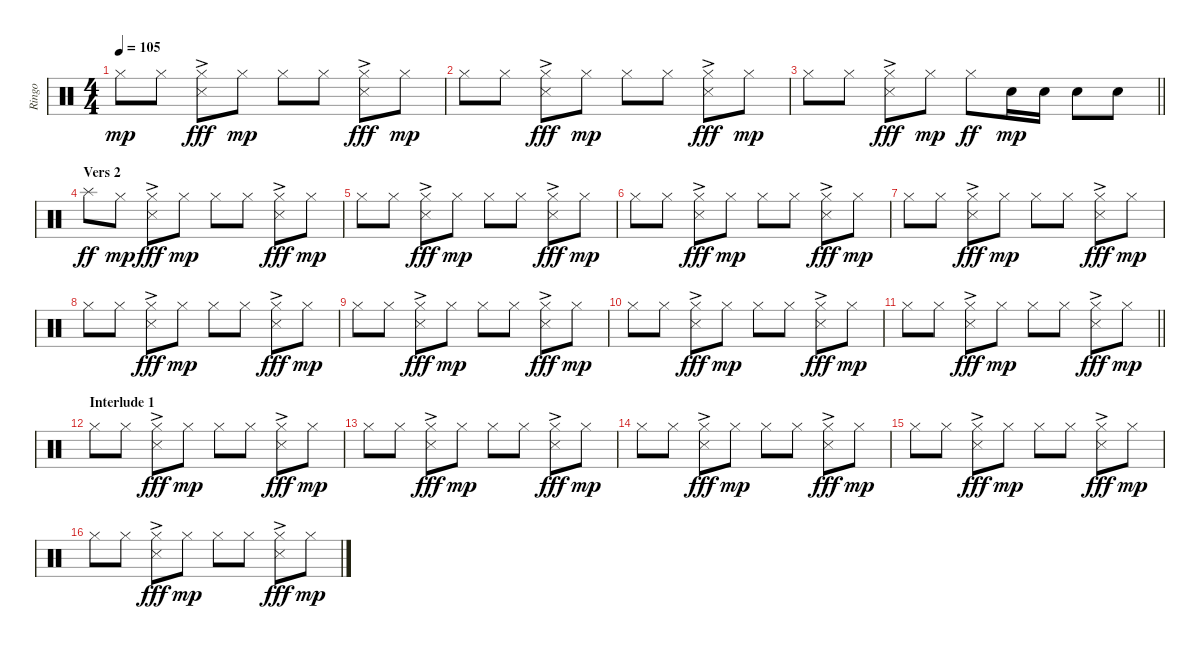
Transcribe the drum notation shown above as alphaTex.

\track ("Ringo" "Ringo") {instrument percussion}
\staff {score}
\articulation defaults
\ts (4 4)
\tempo 105
\clef neutral
\ks c "Hi-Hat (closed)".8{dy mp} "Hi-Hat (closed)".8
("Hi-Hat (closed)" "Metronome (hit)"{ac}).8{dy fff} "Hi-Hat (closed)".8{dy mp} "Hi-Hat (closed)".8 "Hi-Hat (closed)".8 ("Hi-Hat (closed)" "Metronome (hit)"{ac}).8{dy fff} "Hi-Hat (closed)".8{dy mp} |
"Hi-Hat (closed)".8 "Hi-Hat (closed)".8 ("Hi-Hat (closed)" "Metronome (hit)"{ac}).8{dy fff} "Hi-Hat (closed)".8{dy mp} "Hi-Hat (closed)".8 "Hi-Hat (closed)".8 ("Hi-Hat (closed)" "Metronome (hit)"{ac}).8{dy fff} "Hi-Hat (closed)".8{dy mp} |
\barLineRight lightlight "Hi-Hat (closed)".8 "Hi-Hat (closed)".8
("Hi-Hat (closed)" "Metronome (hit)"{ac}).8{dy fff} "Hi-Hat (closed)".8{dy mp} "Hi-Hat (closed)".8{dy ff} "Snare (hit) 2".16{dy mp} "Snare (hit) 2".16 "Snare (hit) 2".8 "Snare (hit) 2".8 |
\section ("" "Vers 2")
"Splash (hit)".8{dy ff} "Hi-Hat (closed)".8{dy mp} ("Hi-Hat (closed)" "Metronome (hit)"{ac}).8{dy fff} "Hi-Hat (closed)".8{dy mp} "Hi-Hat (closed)".8 "Hi-Hat (closed)".8 ("Hi-Hat (closed)" "Metronome (hit)"{ac}).8{dy fff} "Hi-Hat (closed)".8{dy mp} |
"Hi-Hat (closed)".8 "Hi-Hat (closed)".8 ("Hi-Hat (closed)" "Metronome (hit)"{ac}).8{dy fff} "Hi-Hat (closed)".8{dy mp} "Hi-Hat (closed)".8 "Hi-Hat (closed)".8 ("Hi-Hat (closed)" "Metronome (hit)"{ac}).8{dy fff} "Hi-Hat (closed)".8{dy mp} |
"Hi-Hat (closed)".8 "Hi-Hat (closed)".8 ("Hi-Hat (closed)" "Metronome (hit)"{ac}).8{dy fff} "Hi-Hat (closed)".8{dy mp} "Hi-Hat (closed)".8 "Hi-Hat (closed)".8 ("Hi-Hat (closed)" "Metronome (hit)"{ac}).8{dy fff} "Hi-Hat (closed)".8{dy mp} |
"Hi-Hat (closed)".8 "Hi-Hat (closed)".8 ("Hi-Hat (closed)" "Metronome (hit)"{ac}).8{dy fff} "Hi-Hat (closed)".8{dy mp} "Hi-Hat (closed)".8 "Hi-Hat (closed)".8 ("Hi-Hat (closed)" "Metronome (hit)"{ac}).8{dy fff} "Hi-Hat (closed)".8{dy mp} |
"Hi-Hat (closed)".8 "Hi-Hat (closed)".8 ("Hi-Hat (closed)" "Metronome (hit)"{ac}).8{dy fff} "Hi-Hat (closed)".8{dy mp} "Hi-Hat (closed)".8 "Hi-Hat (closed)".8 ("Hi-Hat (closed)" "Metronome (hit)"{ac}).8{dy fff} "Hi-Hat (closed)".8{dy mp} |
"Hi-Hat (closed)".8 "Hi-Hat (closed)".8 ("Hi-Hat (closed)" "Metronome (hit)"{ac}).8{dy fff} "Hi-Hat (closed)".8{dy mp} "Hi-Hat (closed)".8 "Hi-Hat (closed)".8 ("Hi-Hat (closed)" "Metronome (hit)"{ac}).8{dy fff} "Hi-Hat (closed)".8{dy mp} |
"Hi-Hat (closed)".8 "Hi-Hat (closed)".8 ("Hi-Hat (closed)" "Metronome (hit)"{ac}).8{dy fff} "Hi-Hat (closed)".8{dy mp} "Hi-Hat (closed)".8 "Hi-Hat (closed)".8 ("Hi-Hat (closed)" "Metronome (hit)"{ac}).8{dy fff} "Hi-Hat (closed)".8{dy mp} |
\barLineRight lightlight "Hi-Hat (closed)".8 "Hi-Hat (closed)".8
("Hi-Hat (closed)" "Metronome (hit)"{ac}).8{dy fff} "Hi-Hat (closed)".8{dy mp} "Hi-Hat (closed)".8 "Hi-Hat (closed)".8 ("Hi-Hat (closed)" "Metronome (hit)"{ac}).8{dy fff} "Hi-Hat (closed)".8{dy mp} |
\section ("" "Interlude 1")
"Hi-Hat (closed)".8 "Hi-Hat (closed)".8 ("Hi-Hat (closed)" "Metronome (hit)"{ac}).8{dy fff} "Hi-Hat (closed)".8{dy mp} "Hi-Hat (closed)".8 "Hi-Hat (closed)".8 ("Hi-Hat (closed)" "Metronome (hit)"{ac}).8{dy fff} "Hi-Hat (closed)".8{dy mp} |
"Hi-Hat (closed)".8 "Hi-Hat (closed)".8 ("Hi-Hat (closed)" "Metronome (hit)"{ac}).8{dy fff} "Hi-Hat (closed)".8{dy mp} "Hi-Hat (closed)".8 "Hi-Hat (closed)".8 ("Hi-Hat (closed)" "Metronome (hit)"{ac}).8{dy fff} "Hi-Hat (closed)".8{dy mp} |
"Hi-Hat (closed)".8 "Hi-Hat (closed)".8 ("Hi-Hat (closed)" "Metronome (hit)"{ac}).8{dy fff} "Hi-Hat (closed)".8{dy mp} "Hi-Hat (closed)".8 "Hi-Hat (closed)".8 ("Hi-Hat (closed)" "Metronome (hit)"{ac}).8{dy fff} "Hi-Hat (closed)".8{dy mp} |
"Hi-Hat (closed)".8 "Hi-Hat (closed)".8 ("Hi-Hat (closed)" "Metronome (hit)"{ac}).8{dy fff} "Hi-Hat (closed)".8{dy mp} "Hi-Hat (closed)".8 "Hi-Hat (closed)".8 ("Hi-Hat (closed)" "Metronome (hit)"{ac}).8{dy fff} "Hi-Hat (closed)".8{dy mp} |
"Hi-Hat (closed)".8 "Hi-Hat (closed)".8 ("Hi-Hat (closed)" "Metronome (hit)"{ac}).8{dy fff} "Hi-Hat (closed)".8{dy mp} "Hi-Hat (closed)".8 "Hi-Hat (closed)".8 ("Hi-Hat (closed)" "Metronome (hit)"{ac}).8{dy fff} "Hi-Hat (closed)".8{dy mp}
